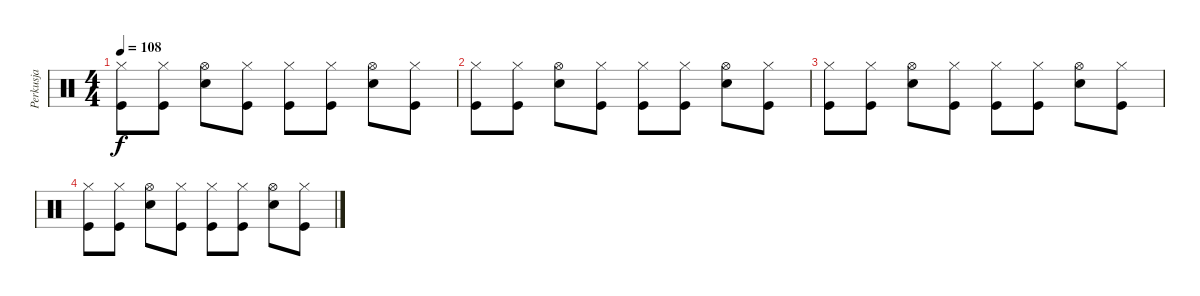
\track ("Perkusja" "Perkusja") {instrument percussion}
\staff {score}
\articulation defaults
\ts (4 4)
\tempo 108
\clef neutral
\ks c
("Hi-Hat (closed)" "Kick (hit)").8{dy f} ("Hi-Hat (closed)" "Kick (hit)").8 ("Hi-Hat (open)" "Electric Snare (hit)").8 ("Hi-Hat (closed)" "Kick (hit)").8 ("Hi-Hat (closed)" "Kick (hit)").8 ("Hi-Hat (closed)" "Kick (hit)").8 ("Hi-Hat (open)" "Electric Snare (hit)").8 ("Hi-Hat (closed)" "Kick (hit)").8 |
("Hi-Hat (closed)" "Kick (hit)").8 ("Hi-Hat (closed)" "Kick (hit)").8 ("Hi-Hat (open)" "Electric Snare (hit)").8 ("Hi-Hat (closed)" "Kick (hit)").8 ("Hi-Hat (closed)" "Kick (hit)").8 ("Hi-Hat (closed)" "Kick (hit)").8 ("Hi-Hat (open)" "Electric Snare (hit)").8 ("Hi-Hat (closed)" "Kick (hit)").8 |
("Hi-Hat (closed)" "Kick (hit)").8 ("Hi-Hat (closed)" "Kick (hit)").8 ("Hi-Hat (open)" "Electric Snare (hit)").8 ("Hi-Hat (closed)" "Kick (hit)").8 ("Hi-Hat (closed)" "Kick (hit)").8 ("Hi-Hat (closed)" "Kick (hit)").8 ("Hi-Hat (open)" "Electric Snare (hit)").8 ("Hi-Hat (closed)" "Kick (hit)").8 |
("Hi-Hat (closed)" "Kick (hit)").8 ("Hi-Hat (closed)" "Kick (hit)").8 ("Hi-Hat (open)" "Electric Snare (hit)").8 ("Hi-Hat (closed)" "Kick (hit)").8 ("Hi-Hat (closed)" "Kick (hit)").8 ("Hi-Hat (closed)" "Kick (hit)").8 ("Hi-Hat (open)" "Electric Snare (hit)").8 ("Hi-Hat (closed)" "Kick (hit)").8
